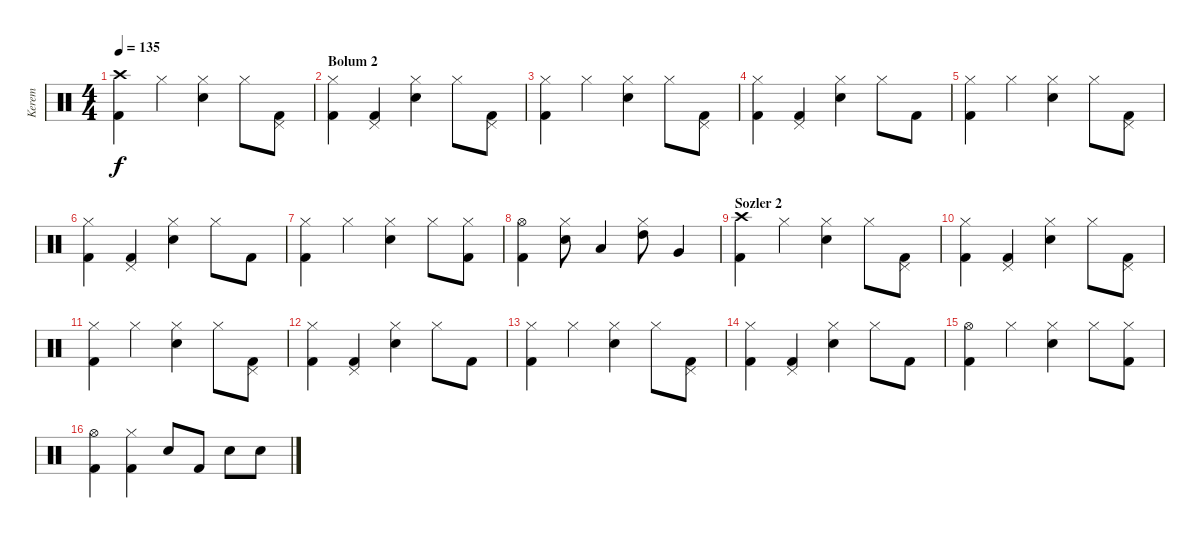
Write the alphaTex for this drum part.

\track ("Kerem" "Kerem") {instrument percussion}
\staff {score}
\articulation defaults
\ts (4 4)
\tempo 135
\clef neutral
\ks c
("Crash high (hit)" "Kick (hit) 2").4{dy f} "Hi-Hat (closed)".4 ("Electric Snare (hit)" "Hi-Hat (closed)").4 "Hi-Hat (closed)".8 ("Pedal Hi-Hat (hit)" "Kick (hit) 2").8 |
\section ("" "Bolum 2")
("Hi-Hat (closed)" "Kick (hit) 2").4 ("Pedal Hi-Hat (hit)" "Kick (hit) 2").4 ("Electric Snare (hit)" "Hi-Hat (closed)").4 "Hi-Hat (closed)".8 ("Pedal Hi-Hat (hit)" "Kick (hit) 2").8 |
("Hi-Hat (closed)" "Kick (hit) 2").4 "Hi-Hat (closed)".4 ("Electric Snare (hit)" "Hi-Hat (closed)").4 "Hi-Hat (closed)".8 ("Pedal Hi-Hat (hit)" "Kick (hit) 2").8 |
("Hi-Hat (closed)" "Kick (hit) 2").4 ("Pedal Hi-Hat (hit)" "Kick (hit) 2").4 ("Electric Snare (hit)" "Hi-Hat (closed)").4 "Hi-Hat (closed)".8 "Kick (hit) 2".8 |
("Hi-Hat (closed)" "Kick (hit) 2").4 "Hi-Hat (closed)".4 ("Electric Snare (hit)" "Hi-Hat (closed)").4 "Hi-Hat (closed)".8 ("Pedal Hi-Hat (hit)" "Kick (hit) 2").8 |
("Hi-Hat (closed)" "Kick (hit) 2").4 ("Pedal Hi-Hat (hit)" "Kick (hit) 2").4 ("Electric Snare (hit)" "Hi-Hat (closed)").4 "Hi-Hat (closed)".8 "Kick (hit) 2".8 |
("Hi-Hat (closed)" "Kick (hit) 2").4 "Hi-Hat (closed)".4 ("Electric Snare (hit)" "Hi-Hat (closed)").4 "Hi-Hat (closed)".8 ("Hi-Hat (closed)" "Kick (hit) 2").8 |
("Kick (hit) 2" "Hi-Hat (open)").4 ("Electric Snare (hit)" "Hi-Hat (closed)").8 "Low Tom (hit)".4 ("High Tom (hit)" "Hi-Hat (closed)").8 "Very Low Tom (hit)".4 |
\section ("" "Sozler 2")
("Crash high (hit)" "Kick (hit) 2").4 "Hi-Hat (closed)".4 ("Electric Snare (hit)" "Hi-Hat (closed)").4 "Hi-Hat (closed)".8 ("Pedal Hi-Hat (hit)" "Kick (hit) 2").8 |
("Hi-Hat (closed)" "Kick (hit) 2").4 ("Pedal Hi-Hat (hit)" "Kick (hit) 2").4 ("Electric Snare (hit)" "Hi-Hat (closed)").4 "Hi-Hat (closed)".8 ("Pedal Hi-Hat (hit)" "Kick (hit) 2").8 |
("Hi-Hat (closed)" "Kick (hit) 2").4 "Hi-Hat (closed)".4 ("Electric Snare (hit)" "Hi-Hat (closed)").4 "Hi-Hat (closed)".8 ("Pedal Hi-Hat (hit)" "Kick (hit) 2").8 |
("Hi-Hat (closed)" "Kick (hit) 2").4 ("Pedal Hi-Hat (hit)" "Kick (hit) 2").4 ("Electric Snare (hit)" "Hi-Hat (closed)").4 "Hi-Hat (closed)".8 "Kick (hit) 2".8 |
("Hi-Hat (closed)" "Kick (hit) 2").4 "Hi-Hat (closed)".4 ("Electric Snare (hit)" "Hi-Hat (closed)").4 "Hi-Hat (closed)".8 ("Pedal Hi-Hat (hit)" "Kick (hit) 2").8 |
("Hi-Hat (closed)" "Kick (hit) 2").4 ("Pedal Hi-Hat (hit)" "Kick (hit) 2").4 ("Electric Snare (hit)" "Hi-Hat (closed)").4 "Hi-Hat (closed)".8 "Kick (hit) 2".8 |
("Hi-Hat (open)" "Kick (hit) 2").4 "Hi-Hat (closed)".4 ("Electric Snare (hit)" "Hi-Hat (closed)").4 "Hi-Hat (closed)".8 ("Hi-Hat (closed)" "Kick (hit) 2").8 |
("Kick (hit) 2" "Hi-Hat (open)").4 ("Kick (hit) 2" "Hi-Hat (closed)").4 "Electric Snare (hit)".8 "Kick (hit) 2".8 "Electric Snare (hit)".8 "Electric Snare (hit)".8
